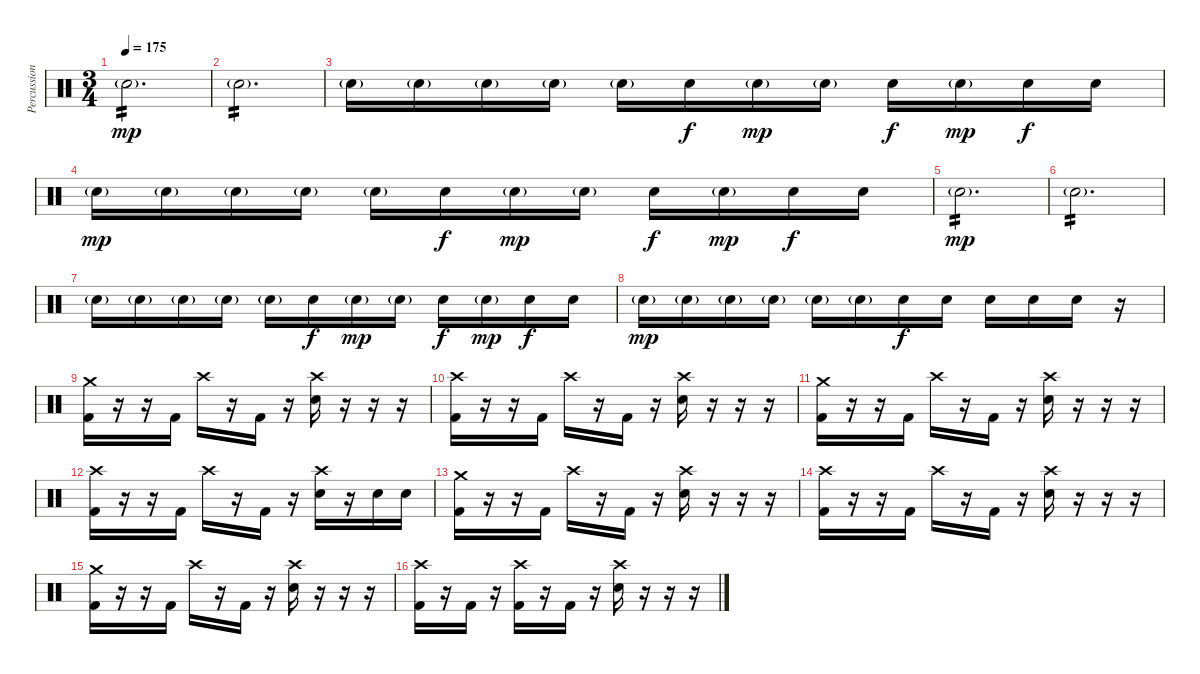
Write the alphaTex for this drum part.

\track ("Percussion" "Percussion") {instrument percussion}
\staff {score}
\articulation defaults
\ts (3 4)
\tempo 175
\clef neutral
\ks c "Snare (hit) 2"{g}.2{d tp 2 dy mp}
|
"Snare (hit) 2"{g}.2{d tp 2} |
"Snare (hit) 2"{g}.16 "Snare (hit) 2"{g}.16 "Snare (hit) 2"{g}.16 "Snare (hit) 2"{g}.16 "Snare (hit) 2"{g}.16 "Snare (hit) 2".16{dy f} "Snare (hit) 2"{g}.16{dy mp} "Snare (hit) 2"{g}.16 "Snare (hit) 2".16{dy f} "Snare (hit) 2"{g}.16{dy mp} "Snare (hit) 2".16{dy f} "Snare (hit) 2".16 |
"Snare (hit) 2"{g}.16{dy mp} "Snare (hit) 2"{g}.16 "Snare (hit) 2"{g}.16 "Snare (hit) 2"{g}.16 "Snare (hit) 2"{g}.16 "Snare (hit) 2".16{dy f} "Snare (hit) 2"{g}.16{dy mp} "Snare (hit) 2"{g}.16 "Snare (hit) 2".16{dy f} "Snare (hit) 2"{g}.16{dy mp} "Snare (hit) 2".16{dy f} "Snare (hit) 2".16 |
"Snare (hit) 2"{g}.2{d tp 2 dy mp} |
"Snare (hit) 2"{g}.2{d tp 2} |
"Snare (hit) 2"{g}.16 "Snare (hit) 2"{g}.16 "Snare (hit) 2"{g}.16 "Snare (hit) 2"{g}.16 "Snare (hit) 2"{g}.16 "Snare (hit) 2".16{dy f} "Snare (hit) 2"{g}.16{dy mp} "Snare (hit) 2"{g}.16 "Snare (hit) 2".16{dy f} "Snare (hit) 2"{g}.16{dy mp} "Snare (hit) 2".16{dy f} "Snare (hit) 2".16 |
"Snare (hit) 2"{g}.16{dy mp} "Snare (hit) 2"{g}.16 "Snare (hit) 2"{g}.16 "Snare (hit) 2"{g}.16 "Snare (hit) 2"{g}.16 "Snare (hit) 2"{g}.16 "Electric Snare (hit)".16{dy f} "Electric Snare (hit)".16 "Electric Snare (hit)".16 "Electric Snare (hit)".16 "Electric Snare (hit)".16 r.16 |
("Crash medium (hit)" "Kick (hit) 2").16 r.16 r.16 "Kick (hit) 2".16 "Crash high (hit)".16 r.16 "Kick (hit) 2".16 r.16 ("Crash high (hit)" "Electric Snare (hit)").16 r.16 r.16 r.16 |
("Crash high (hit)" "Kick (hit) 2").16 r.16 r.16 "Kick (hit) 2".16 "Crash high (hit)".16 r.16 "Kick (hit) 2".16 r.16 ("Crash high (hit)" "Electric Snare (hit)").16 r.16 r.16 r.16 |
("Crash medium (hit)" "Kick (hit) 2").16 r.16 r.16 "Kick (hit) 2".16 "Crash high (hit)".16 r.16 "Kick (hit) 2".16 r.16 ("Crash high (hit)" "Electric Snare (hit)").16 r.16 r.16 r.16 |
("Crash high (hit)" "Kick (hit) 2").16 r.16 r.16 "Kick (hit) 2".16 "Crash high (hit)".16 r.16 "Kick (hit) 2".16 r.16 ("Crash high (hit)" "Electric Snare (hit)").16 r.16 "Electric Snare (hit)".16 "Electric Snare (hit)".16 |
("Crash medium (hit)" "Kick (hit) 2").16 r.16 r.16 "Kick (hit) 2".16 "Crash high (hit)".16 r.16 "Kick (hit) 2".16 r.16 ("Crash high (hit)" "Electric Snare (hit)").16 r.16 r.16 r.16 |
("Crash high (hit)" "Kick (hit) 2").16 r.16 r.16 "Kick (hit) 2".16 "Crash high (hit)".16 r.16 "Kick (hit) 2".16 r.16 ("Crash high (hit)" "Electric Snare (hit)").16 r.16 r.16 r.16 |
("Crash medium (hit)" "Kick (hit) 2").16 r.16 r.16 "Kick (hit) 2".16 "Crash high (hit)".16 r.16 "Kick (hit) 2".16 r.16 ("Crash high (hit)" "Electric Snare (hit)").16 r.16 r.16 r.16 |
("Crash high (hit)" "Kick (hit) 2").16 r.16 "Kick (hit) 2".16 r.16 ("Crash high (hit)" "Kick (hit) 2").16 r.16 "Kick (hit) 2".16 r.16 ("Crash high (hit)" "Electric Snare (hit)").16 r.16 r.16 r.16
